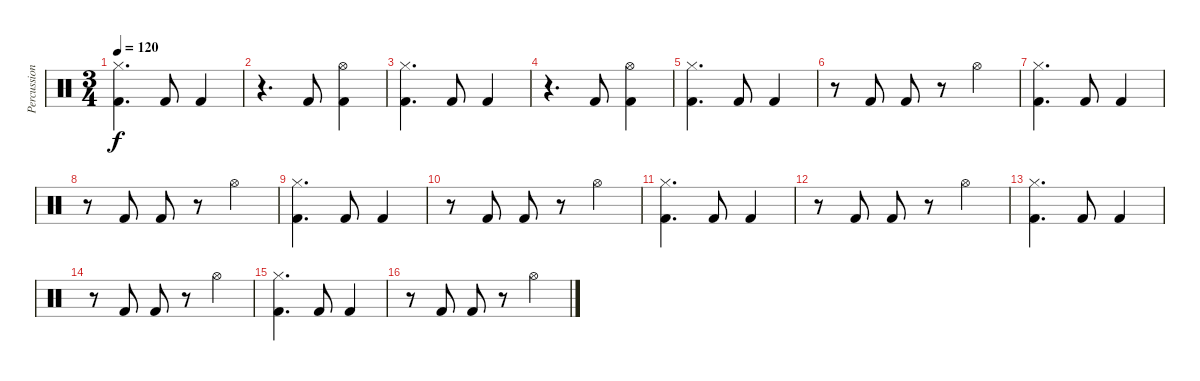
\track ("Percussion" "Percussion") {instrument percussion}
\staff {score}
\articulation defaults
\ts (3 4)
\tempo 120
\clef neutral
\ks c
("Kick (hit) 2" "Hi-Hat (closed)").4{d dy f} "Kick (hit) 2".8 "Kick (hit) 2".4 |
r.4{d} "Kick (hit) 2".8 ("Kick (hit) 2" "Hi-Hat (open)").4 |
("Kick (hit) 2" "Hi-Hat (closed)").4{d} "Kick (hit) 2".8 "Kick (hit) 2".4 |
r.4{d} "Kick (hit) 2".8 ("Kick (hit) 2" "Hi-Hat (open)").4 |
("Kick (hit) 2" "Hi-Hat (closed)").4{d} "Kick (hit) 2".8 "Kick (hit) 2".4 |
r.8 "Kick (hit) 2".8 "Kick (hit) 2".8 r.8 "Hi-Hat (open)".4 |
("Kick (hit) 2" "Hi-Hat (closed)").4{d} "Kick (hit) 2".8 "Kick (hit) 2".4 |
r.8 "Kick (hit) 2".8 "Kick (hit) 2".8 r.8 "Hi-Hat (open)".4 |
("Kick (hit) 2" "Hi-Hat (closed)").4{d} "Kick (hit) 2".8 "Kick (hit) 2".4 |
r.8 "Kick (hit) 2".8 "Kick (hit) 2".8 r.8 "Hi-Hat (open)".4 |
("Kick (hit) 2" "Hi-Hat (closed)").4{d} "Kick (hit) 2".8 "Kick (hit) 2".4 |
r.8 "Kick (hit) 2".8 "Kick (hit) 2".8 r.8 "Hi-Hat (open)".4 |
("Kick (hit) 2" "Hi-Hat (closed)").4{d} "Kick (hit) 2".8 "Kick (hit) 2".4 |
r.8 "Kick (hit) 2".8 "Kick (hit) 2".8 r.8 "Hi-Hat (open)".4 |
("Kick (hit) 2" "Hi-Hat (closed)").4{d} "Kick (hit) 2".8 "Kick (hit) 2".4 |
r.8 "Kick (hit) 2".8 "Kick (hit) 2".8 r.8 "Hi-Hat (open)".4
